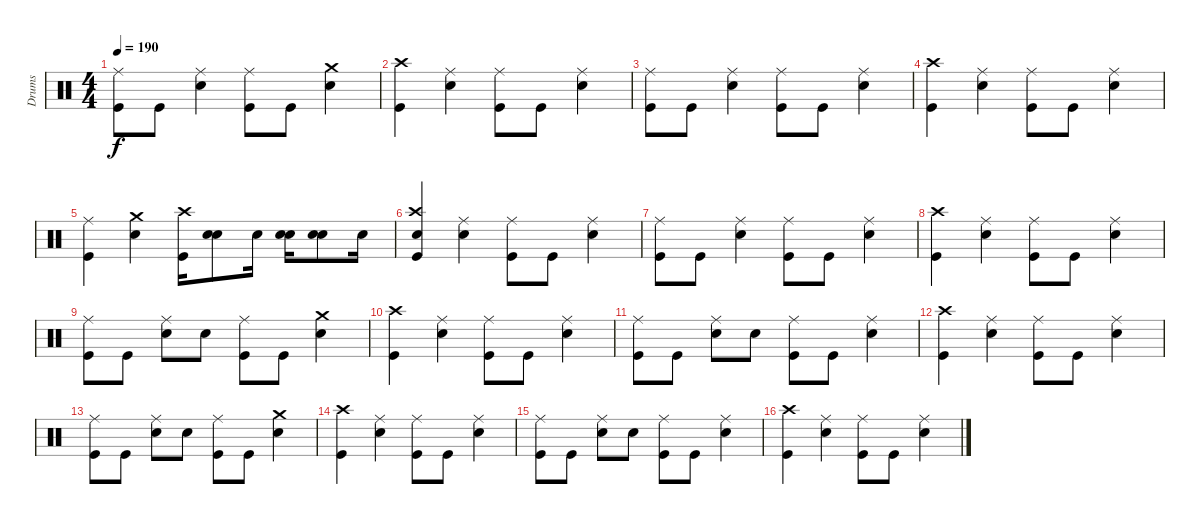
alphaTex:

\track ("Drums" "Drums") {instrument percussion}
\staff {score}
\articulation defaults
\ts (4 4)
\tempo 190
\clef neutral
\ks c
("Kick (hit)" "Ride (middle)").8{dy f} "Kick (hit)".8 ("Electric Snare (hit)" "Ride (middle)").4 ("Kick (hit)" "Ride (middle)").8 "Kick (hit)".8 ("Electric Snare (hit)" "Crash medium (hit)").4 |
("Crash high (hit)" "Kick (hit)").4 ("Electric Snare (hit)" "Ride (middle)").4 ("Kick (hit)" "Ride (middle)").8 "Kick (hit)".8 ("Electric Snare (hit)" "Ride (middle)").4 |
("Kick (hit)" "Ride (middle)").8 "Kick (hit)".8 ("Electric Snare (hit)" "Ride (middle)").4 ("Kick (hit)" "Ride (middle)").8 "Kick (hit)".8 ("Electric Snare (hit)" "Ride (middle)").4 |
("Crash high (hit)" "Kick (hit)").4 ("Electric Snare (hit)" "Ride (middle)").4 ("Kick (hit)" "Ride (middle)").8 "Kick (hit)".8 ("Electric Snare (hit)" "Ride (middle)").4 |
("Kick (hit)" "Ride (middle)").4 ("Electric Snare (hit)" "Crash medium (hit)").4 ("Kick (hit)" "Crash high (hit)").16 ("Snare (hit)" "Electric Snare (hit)").8 "Electric Snare (hit)".16 ("Snare (hit)" "Electric Snare (hit)").16 ("Snare (hit)" "Electric Snare (hit)").8 "Electric Snare (hit)".16 |
("Snare (hit)" "Crash high (hit)" "Kick (hit)").4 ("Electric Snare (hit)" "Ride (middle)").4 ("Kick (hit)" "Ride (middle)").8 "Kick (hit)".8 ("Electric Snare (hit)" "Ride (middle)").4 |
("Kick (hit)" "Ride (middle)").8 "Kick (hit)".8 ("Electric Snare (hit)" "Ride (middle)").4 ("Kick (hit)" "Ride (middle)").8 "Kick (hit)".8 ("Electric Snare (hit)" "Ride (middle)").4 |
("Crash high (hit)" "Kick (hit)").4 ("Electric Snare (hit)" "Ride (middle)").4 ("Kick (hit)" "Ride (middle)").8 "Kick (hit)".8 ("Electric Snare (hit)" "Ride (middle)").4 |
("Kick (hit)" "Ride (middle)").8 "Kick (hit)".8 ("Electric Snare (hit)" "Ride (middle)").8 "Electric Snare (hit)".8 ("Kick (hit)" "Ride (middle)").8 "Kick (hit)".8 ("Electric Snare (hit)" "Crash medium (hit)").4 |
("Crash high (hit)" "Kick (hit)").4 ("Electric Snare (hit)" "Ride (middle)").4 ("Kick (hit)" "Ride (middle)").8 "Kick (hit)".8 ("Electric Snare (hit)" "Ride (middle)").4 |
("Kick (hit)" "Ride (middle)").8 "Kick (hit)".8 ("Electric Snare (hit)" "Ride (middle)").8 "Electric Snare (hit)".8 ("Kick (hit)" "Ride (middle)").8 "Kick (hit)".8 ("Electric Snare (hit)" "Ride (middle)").4 |
("Crash high (hit)" "Kick (hit)").4 ("Electric Snare (hit)" "Ride (middle)").4 ("Kick (hit)" "Ride (middle)").8 "Kick (hit)".8 ("Electric Snare (hit)" "Ride (middle)").4 |
("Kick (hit)" "Ride (middle)").8 "Kick (hit)".8 ("Electric Snare (hit)" "Ride (middle)").8 "Electric Snare (hit)".8 ("Kick (hit)" "Ride (middle)").8 "Kick (hit)".8 ("Electric Snare (hit)" "Crash medium (hit)").4 |
("Crash high (hit)" "Kick (hit)").4 ("Electric Snare (hit)" "Ride (middle)").4 ("Kick (hit)" "Ride (middle)").8 "Kick (hit)".8 ("Electric Snare (hit)" "Ride (middle)").4 |
("Kick (hit)" "Ride (middle)").8 "Kick (hit)".8 ("Electric Snare (hit)" "Ride (middle)").8 "Electric Snare (hit)".8 ("Kick (hit)" "Ride (middle)").8 "Kick (hit)".8 ("Electric Snare (hit)" "Ride (middle)").4 |
("Crash high (hit)" "Kick (hit)").4 ("Electric Snare (hit)" "Ride (middle)").4 ("Kick (hit)" "Ride (middle)").8 "Kick (hit)".8 ("Electric Snare (hit)" "Ride (middle)").4
